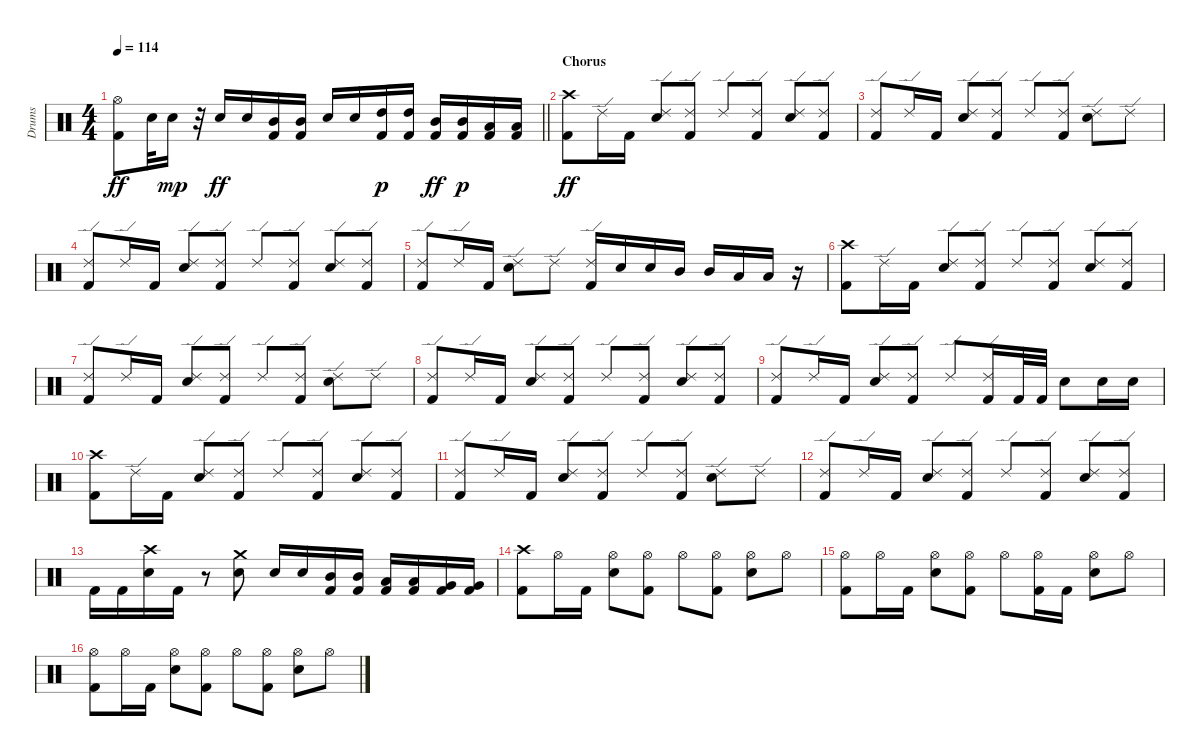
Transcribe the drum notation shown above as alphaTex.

\track ("Drums               " "Drums     ") {instrument percussion}
\staff {score}
\articulation defaults
\ts (4 4)
\tempo 114
\clef neutral
\barLineRight lightlight
\ks c
("Kick (hit) 2" "Hi-Hat (open)").8{dy ff} "Electric Snare (hit)".32 "Metronome (bell)".16{dy mp} r.32 "Electric Snare (hit)".16{dy ff} "Electric Snare (hit)".16 ("Kick (hit) 2" "Mid Tom (hit)").16 ("Kick (hit) 2" "Mid Tom (hit)").16 "Electric Snare (hit)".16 "Electric Snare (hit)".16 ("High Tom (hit)" "Kick (hit) 2").16{dy p} ("High Tom (hit)" "Kick (hit) 2").16 ("Kick (hit) 2" "Mid Tom (hit)").16{dy ff} ("Mid Tom (hit)" "Kick (hit) 2").16{dy p} ("Low Tom (hit)" "Kick (hit) 2").16 ("Low Tom (hit)" "Kick (hit) 2").16 |
\section ("" "Chorus")
("Kick (hit) 2" "Crash high (hit)").8{dy ff} "Ride (edge) 2".16 "Kick (hit) 2".16 ("Electric Snare (hit)" "Ride (edge) 2").8 ("Kick (hit) 2" "Ride (edge) 2").8 "Ride (edge) 2".8 ("Kick (hit) 2" "Ride (edge) 2").8 ("Electric Snare (hit)" "Ride (edge) 2").8 ("Kick (hit) 2" "Ride (edge) 2").8 |
("Kick (hit) 2" "Ride (edge) 2").8 "Ride (edge) 2".16 "Kick (hit) 2".16 ("Electric Snare (hit)" "Ride (edge) 2").8 ("Kick (hit) 2" "Ride (edge) 2").8 "Ride (edge) 2".8 ("Kick (hit) 2" "Ride (edge) 2").8 ("Electric Snare (hit)" "Ride (edge) 2").8 "Ride (edge) 2".8 |
("Kick (hit) 2" "Ride (edge) 2").8 "Ride (edge) 2".16 "Kick (hit) 2".16 ("Electric Snare (hit)" "Ride (edge) 2").8 ("Kick (hit) 2" "Ride (edge) 2").8 "Ride (edge) 2".8 ("Kick (hit) 2" "Ride (edge) 2").8 ("Electric Snare (hit)" "Ride (edge) 2").8 ("Kick (hit) 2" "Ride (edge) 2").8 |
("Kick (hit) 2" "Ride (edge) 2").8 "Ride (edge) 2".16 "Kick (hit) 2".16 ("Electric Snare (hit)" "Ride (edge) 2").8 "Ride (edge) 2".8 ("Ride (edge) 2" "Kick (hit) 2").16 "Electric Snare (hit)".16 "Electric Snare (hit)".16 "Mid Tom (hit)".16 "Mid Tom (hit)".16 "Low Tom (hit)".16 "Low Tom (hit)".16 r.16 |
("Kick (hit) 2" "Crash high (hit)").8 "Ride (edge) 2".16 "Kick (hit) 2".16 ("Electric Snare (hit)" "Ride (edge) 2").8 ("Kick (hit) 2" "Ride (edge) 2").8 "Ride (edge) 2".8 ("Kick (hit) 2" "Ride (edge) 2").8 ("Ride (edge) 2" "Electric Snare (hit)").8 ("Kick (hit) 2" "Ride (edge) 2").8 |
("Kick (hit) 2" "Ride (edge) 2").8 "Ride (edge) 2".16 "Kick (hit) 2".16 ("Electric Snare (hit)" "Ride (edge) 2").8 ("Kick (hit) 2" "Ride (edge) 2").8 "Ride (edge) 2".8 ("Ride (edge) 2" "Kick (hit) 2").8 ("Ride (edge) 2" "Electric Snare (hit)").8 "Ride (edge) 2".8 |
("Kick (hit) 2" "Ride (edge) 2").8 "Ride (edge) 2".16 "Kick (hit) 2".16 ("Electric Snare (hit)" "Ride (edge) 2").8 ("Kick (hit) 2" "Ride (edge) 2").8 "Ride (edge) 2".8 ("Kick (hit) 2" "Ride (edge) 2").8 ("Ride (edge) 2" "Electric Snare (hit)").8 ("Kick (hit) 2" "Ride (edge) 2").8 |
("Kick (hit) 2" "Ride (edge) 2").8 "Ride (edge) 2".16 "Kick (hit) 2".16 ("Electric Snare (hit)" "Ride (edge) 2").8 ("Kick (hit) 2" "Ride (edge) 2").8 "Ride (edge) 2".8 ("Kick (hit) 2" "Ride (edge) 2").16 "Kick (hit) 2".32 "Kick (hit) 2".32 "Electric Snare (hit)".8 "Electric Snare (hit)".16 "Electric Snare (hit)".16 |
("Kick (hit) 2" "Crash high (hit)").8 "Ride (edge) 2".16 "Kick (hit) 2".16 ("Electric Snare (hit)" "Ride (edge) 2").8 ("Kick (hit) 2" "Ride (edge) 2").8 "Ride (edge) 2".8 ("Kick (hit) 2" "Ride (edge) 2").8 ("Ride (edge) 2" "Electric Snare (hit)").8 ("Kick (hit) 2" "Ride (edge) 2").8 |
("Kick (hit) 2" "Ride (edge) 2").8 "Ride (edge) 2".16 "Kick (hit) 2".16 ("Electric Snare (hit)" "Ride (edge) 2").8 ("Kick (hit) 2" "Ride (edge) 2").8 "Ride (edge) 2".8 ("Ride (edge) 2" "Kick (hit) 2").8 ("Ride (edge) 2" "Electric Snare (hit)").8 "Ride (edge) 2".8 |
("Kick (hit) 2" "Ride (edge) 2").8 "Ride (edge) 2".16 "Kick (hit) 2".16 ("Electric Snare (hit)" "Ride (edge) 2").8 ("Kick (hit) 2" "Ride (edge) 2").8 "Ride (edge) 2".8 ("Kick (hit) 2" "Ride (edge) 2").8 ("Ride (edge) 2" "Electric Snare (hit)").8 ("Kick (hit) 2" "Ride (edge) 2").8 |
"Kick (hit) 2".16 "Kick (hit) 2".16 ("Crash high (hit)" "Electric Snare (hit)").16 "Kick (hit) 2".16 r.8 ("Crash medium (hit)" "Electric Snare (hit)").8 "Electric Snare (hit)".16 "Electric Snare (hit)".16 ("Kick (hit) 2" "Mid Tom (hit)").16 ("Kick (hit) 2" "Mid Tom (hit)").16 ("Kick (hit) 2" "Low Tom (hit)").16 ("Kick (hit) 2" "Low Tom (hit)").16 ("Kick (hit) 2" "Very Low Tom (hit)").16 ("Kick (hit) 2" "Very Low Tom (hit)").16 |
("Kick (hit) 2" "Crash high (hit)").8 "Hi-Hat (open)".16 "Kick (hit) 2".16 ("Hi-Hat (open)" "Electric Snare (hit)").8 ("Kick (hit) 2" "Hi-Hat (open)").8 "Hi-Hat (open)".8 ("Kick (hit) 2" "Hi-Hat (open)").8 ("Hi-Hat (open)" "Electric Snare (hit)").8 "Hi-Hat (open)".8 |
("Kick (hit) 2" "Hi-Hat (open)").8 "Hi-Hat (open)".16 "Kick (hit) 2".16 ("Hi-Hat (open)" "Electric Snare (hit)").8 ("Kick (hit) 2" "Hi-Hat (open)").8 "Hi-Hat (open)".8 ("Kick (hit) 2" "Hi-Hat (open)").16 "Kick (hit) 2".16 ("Hi-Hat (open)" "Electric Snare (hit)").8 "Hi-Hat (open)".8 |
("Kick (hit) 2" "Hi-Hat (open)").8 "Hi-Hat (open)".16 "Kick (hit) 2".16 ("Hi-Hat (open)" "Electric Snare (hit)").8 ("Kick (hit) 2" "Hi-Hat (open)").8 "Hi-Hat (open)".8 ("Kick (hit) 2" "Hi-Hat (open)").8 ("Hi-Hat (open)" "Electric Snare (hit)").8 "Hi-Hat (open)".8
